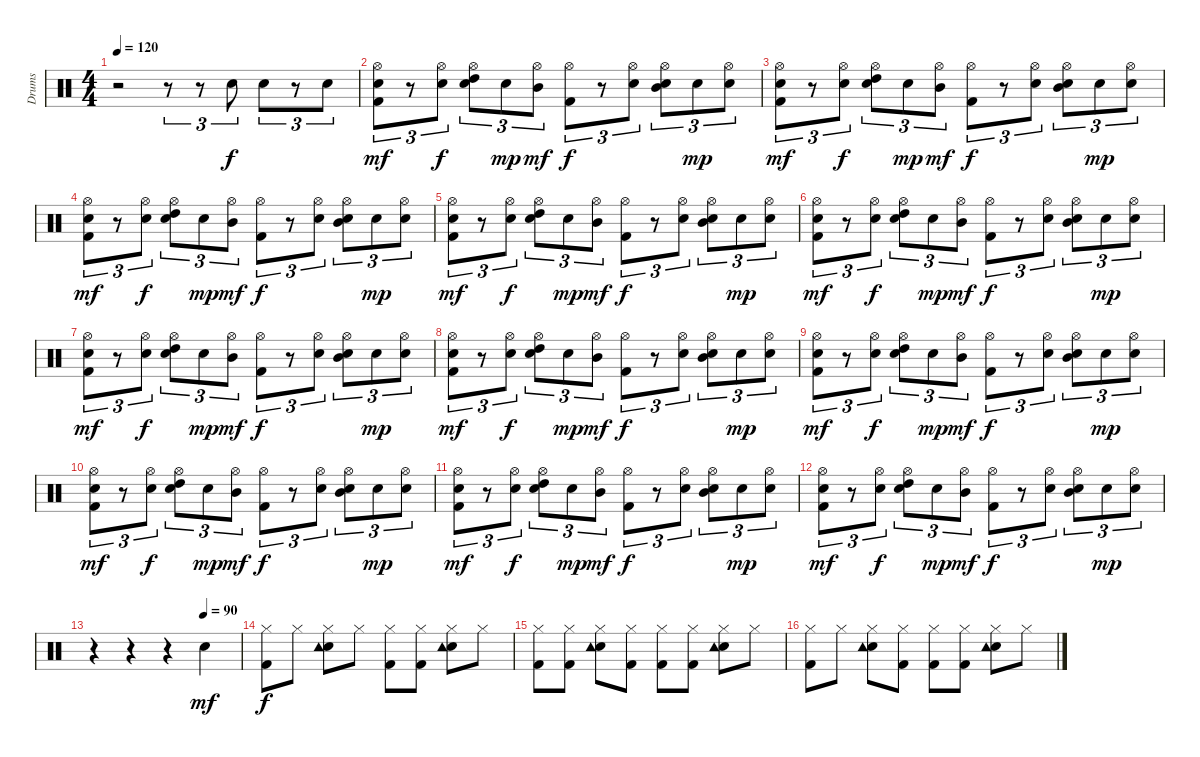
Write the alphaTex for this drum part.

\track ("Drums" "Drums") {instrument percussion}
\staff {score}
\articulation defaults
\ts (4 4)
\tempo 120
\clef neutral
\ks c
r.2{dy f} r.8{tu (3 2)} r.8{tu (3 2)} "Snare (hit) 2".8{tu (3 2)} "Snare (hit) 2".8{tu (3 2)} r.8{tu (3 2)} "Snare (hit) 2".8{tu (3 2)} |
("Hi-Hat (open)" "Snare (hit) 2" "Kick (hit) 2").8{tu (3 2) dy mf} r.8{tu (3 2)} ("Hi-Hat (open)" "Snare (hit) 2").8{tu (3 2) dy f} ("Hi-Hat (open)" "High Tom (hit)" "Snare (hit) 2").8{tu (3 2)} "Snare (hit) 2".8{tu (3 2) dy mp} ("Hi-Hat (open)" "Mid Tom (hit)").8{tu (3 2) dy mf} ("Hi-Hat (open)" "Kick (hit) 2").8{tu (3 2) dy f} r.8{tu (3 2)} ("Hi-Hat (open)" "Snare (hit) 2").8{tu (3 2)} ("Hi-Hat (open)" "Mid Tom (hit)" "Snare (hit) 2").8{tu (3 2)} "Snare (hit) 2".8{tu (3 2) dy mp} ("Hi-Hat (open)" "Snare (hit) 2").8{tu (3 2)} |
("Hi-Hat (open)" "Snare (hit) 2" "Kick (hit) 2").8{tu (3 2) dy mf} r.8{tu (3 2)} ("Hi-Hat (open)" "Snare (hit) 2").8{tu (3 2) dy f} ("Hi-Hat (open)" "High Tom (hit)" "Snare (hit) 2").8{tu (3 2)} "Snare (hit) 2".8{tu (3 2) dy mp} ("Hi-Hat (open)" "Mid Tom (hit)").8{tu (3 2) dy mf} ("Hi-Hat (open)" "Kick (hit) 2").8{tu (3 2) dy f} r.8{tu (3 2)} ("Hi-Hat (open)" "Snare (hit) 2").8{tu (3 2)} ("Hi-Hat (open)" "Mid Tom (hit)" "Snare (hit) 2").8{tu (3 2)} "Snare (hit) 2".8{tu (3 2) dy mp} ("Hi-Hat (open)" "Snare (hit) 2").8{tu (3 2)} |
("Hi-Hat (open)" "Snare (hit) 2" "Kick (hit) 2").8{tu (3 2) dy mf} r.8{tu (3 2)} ("Hi-Hat (open)" "Snare (hit) 2").8{tu (3 2) dy f} ("Hi-Hat (open)" "High Tom (hit)" "Snare (hit) 2").8{tu (3 2)} "Snare (hit) 2".8{tu (3 2) dy mp} ("Hi-Hat (open)" "Mid Tom (hit)").8{tu (3 2) dy mf} ("Hi-Hat (open)" "Kick (hit) 2").8{tu (3 2) dy f} r.8{tu (3 2)} ("Hi-Hat (open)" "Snare (hit) 2").8{tu (3 2)} ("Hi-Hat (open)" "Mid Tom (hit)" "Snare (hit) 2").8{tu (3 2)} "Snare (hit) 2".8{tu (3 2) dy mp} ("Hi-Hat (open)" "Snare (hit) 2").8{tu (3 2)} |
("Hi-Hat (open)" "Snare (hit) 2" "Kick (hit) 2").8{tu (3 2) dy mf} r.8{tu (3 2)} ("Hi-Hat (open)" "Snare (hit) 2").8{tu (3 2) dy f} ("Hi-Hat (open)" "High Tom (hit)" "Snare (hit) 2").8{tu (3 2)} "Snare (hit) 2".8{tu (3 2) dy mp} ("Hi-Hat (open)" "Mid Tom (hit)").8{tu (3 2) dy mf} ("Hi-Hat (open)" "Kick (hit) 2").8{tu (3 2) dy f} r.8{tu (3 2)} ("Hi-Hat (open)" "Snare (hit) 2").8{tu (3 2)} ("Hi-Hat (open)" "Mid Tom (hit)" "Snare (hit) 2").8{tu (3 2)} "Snare (hit) 2".8{tu (3 2) dy mp} ("Hi-Hat (open)" "Snare (hit) 2").8{tu (3 2)} |
("Hi-Hat (open)" "Snare (hit) 2" "Kick (hit) 2").8{tu (3 2) dy mf} r.8{tu (3 2)} ("Hi-Hat (open)" "Snare (hit) 2").8{tu (3 2) dy f} ("Hi-Hat (open)" "High Tom (hit)" "Snare (hit) 2").8{tu (3 2)} "Snare (hit) 2".8{tu (3 2) dy mp} ("Hi-Hat (open)" "Mid Tom (hit)").8{tu (3 2) dy mf} ("Hi-Hat (open)" "Kick (hit) 2").8{tu (3 2) dy f} r.8{tu (3 2)} ("Hi-Hat (open)" "Snare (hit) 2").8{tu (3 2)} ("Hi-Hat (open)" "Mid Tom (hit)" "Snare (hit) 2").8{tu (3 2)} "Snare (hit) 2".8{tu (3 2) dy mp} ("Hi-Hat (open)" "Snare (hit) 2").8{tu (3 2)} |
("Hi-Hat (open)" "Snare (hit) 2" "Kick (hit) 2").8{tu (3 2) dy mf} r.8{tu (3 2)} ("Hi-Hat (open)" "Snare (hit) 2").8{tu (3 2) dy f} ("Hi-Hat (open)" "High Tom (hit)" "Snare (hit) 2").8{tu (3 2)} "Snare (hit) 2".8{tu (3 2) dy mp} ("Hi-Hat (open)" "Mid Tom (hit)").8{tu (3 2) dy mf} ("Hi-Hat (open)" "Kick (hit) 2").8{tu (3 2) dy f} r.8{tu (3 2)} ("Hi-Hat (open)" "Snare (hit) 2").8{tu (3 2)} ("Hi-Hat (open)" "Mid Tom (hit)" "Snare (hit) 2").8{tu (3 2)} "Snare (hit) 2".8{tu (3 2) dy mp} ("Hi-Hat (open)" "Snare (hit) 2").8{tu (3 2)} |
("Hi-Hat (open)" "Snare (hit) 2" "Kick (hit) 2").8{tu (3 2) dy mf} r.8{tu (3 2)} ("Hi-Hat (open)" "Snare (hit) 2").8{tu (3 2) dy f} ("Hi-Hat (open)" "High Tom (hit)" "Snare (hit) 2").8{tu (3 2)} "Snare (hit) 2".8{tu (3 2) dy mp} ("Hi-Hat (open)" "Mid Tom (hit)").8{tu (3 2) dy mf} ("Hi-Hat (open)" "Kick (hit) 2").8{tu (3 2) dy f} r.8{tu (3 2)} ("Hi-Hat (open)" "Snare (hit) 2").8{tu (3 2)} ("Hi-Hat (open)" "Mid Tom (hit)" "Snare (hit) 2").8{tu (3 2)} "Snare (hit) 2".8{tu (3 2) dy mp} ("Hi-Hat (open)" "Snare (hit) 2").8{tu (3 2)} |
("Hi-Hat (open)" "Snare (hit) 2" "Kick (hit) 2").8{tu (3 2) dy mf} r.8{tu (3 2)} ("Hi-Hat (open)" "Snare (hit) 2").8{tu (3 2) dy f} ("Hi-Hat (open)" "High Tom (hit)" "Snare (hit) 2").8{tu (3 2)} "Snare (hit) 2".8{tu (3 2) dy mp} ("Hi-Hat (open)" "Mid Tom (hit)").8{tu (3 2) dy mf} ("Hi-Hat (open)" "Kick (hit) 2").8{tu (3 2) dy f} r.8{tu (3 2)} ("Hi-Hat (open)" "Snare (hit) 2").8{tu (3 2)} ("Hi-Hat (open)" "Mid Tom (hit)" "Snare (hit) 2").8{tu (3 2)} "Snare (hit) 2".8{tu (3 2) dy mp} ("Hi-Hat (open)" "Snare (hit) 2").8{tu (3 2)} |
("Hi-Hat (open)" "Snare (hit) 2" "Kick (hit) 2").8{tu (3 2) dy mf} r.8{tu (3 2)} ("Hi-Hat (open)" "Snare (hit) 2").8{tu (3 2) dy f} ("Hi-Hat (open)" "High Tom (hit)" "Snare (hit) 2").8{tu (3 2)} "Snare (hit) 2".8{tu (3 2) dy mp} ("Hi-Hat (open)" "Mid Tom (hit)").8{tu (3 2) dy mf} ("Hi-Hat (open)" "Kick (hit) 2").8{tu (3 2) dy f} r.8{tu (3 2)} ("Hi-Hat (open)" "Snare (hit) 2").8{tu (3 2)} ("Hi-Hat (open)" "Mid Tom (hit)" "Snare (hit) 2").8{tu (3 2)} "Snare (hit) 2".8{tu (3 2) dy mp} ("Hi-Hat (open)" "Snare (hit) 2").8{tu (3 2)} |
("Hi-Hat (open)" "Snare (hit) 2" "Kick (hit) 2").8{tu (3 2) dy mf} r.8{tu (3 2)} ("Hi-Hat (open)" "Snare (hit) 2").8{tu (3 2) dy f} ("Hi-Hat (open)" "High Tom (hit)" "Snare (hit) 2").8{tu (3 2)} "Snare (hit) 2".8{tu (3 2) dy mp} ("Hi-Hat (open)" "Mid Tom (hit)").8{tu (3 2) dy mf} ("Hi-Hat (open)" "Kick (hit) 2").8{tu (3 2) dy f} r.8{tu (3 2)} ("Hi-Hat (open)" "Snare (hit) 2").8{tu (3 2)} ("Hi-Hat (open)" "Mid Tom (hit)" "Snare (hit) 2").8{tu (3 2)} "Snare (hit) 2".8{tu (3 2) dy mp} ("Hi-Hat (open)" "Snare (hit) 2").8{tu (3 2)} |
("Hi-Hat (open)" "Snare (hit) 2" "Kick (hit) 2").8{tu (3 2) dy mf} r.8{tu (3 2)} ("Hi-Hat (open)" "Snare (hit) 2").8{tu (3 2) dy f} ("Hi-Hat (open)" "High Tom (hit)" "Snare (hit) 2").8{tu (3 2)} "Snare (hit) 2".8{tu (3 2) dy mp} ("Hi-Hat (open)" "Mid Tom (hit)").8{tu (3 2) dy mf} ("Hi-Hat (open)" "Kick (hit) 2").8{tu (3 2) dy f} r.8{tu (3 2)} ("Hi-Hat (open)" "Snare (hit) 2").8{tu (3 2)} ("Hi-Hat (open)" "Mid Tom (hit)" "Snare (hit) 2").8{tu (3 2)} "Snare (hit) 2".8{tu (3 2) dy mp} ("Hi-Hat (open)" "Snare (hit) 2").8{tu (3 2)} |
\tempo (90 0.75)
r.4 r.4 r.4 "Snare (hit) 2".4{dy mf} |
("Hi-Hat (closed)" "Kick (hit) 2").8{dy f} "Hi-Hat (closed)".8 ("Hi-Hat (closed)" "Snare (hit) 2" "Tambourine (hit)").8 "Hi-Hat (closed)".8 ("Hi-Hat (closed)" "Kick (hit) 2").8 ("Hi-Hat (closed)" "Kick (hit) 2").8 ("Hi-Hat (closed)" "Snare (hit) 2" "Tambourine (hit)").8 "Hi-Hat (closed)".8 |
("Hi-Hat (closed)" "Kick (hit) 2").8 ("Hi-Hat (closed)" "Kick (hit) 2").8 ("Hi-Hat (closed)" "Snare (hit) 2" "Tambourine (hit)").8 ("Hi-Hat (closed)" "Kick (hit) 2").8 ("Hi-Hat (closed)" "Kick (hit) 2").8 ("Hi-Hat (closed)" "Kick (hit) 2").8 ("Hi-Hat (closed)" "Snare (hit) 2" "Tambourine (hit)").8 "Hi-Hat (closed)".8 |
("Hi-Hat (closed)" "Kick (hit) 2").8 "Hi-Hat (closed)".8 ("Hi-Hat (closed)" "Snare (hit) 2" "Tambourine (hit)").8 ("Hi-Hat (closed)" "Kick (hit) 2").8 ("Hi-Hat (closed)" "Kick (hit) 2").8 ("Hi-Hat (closed)" "Kick (hit) 2").8 ("Hi-Hat (closed)" "Snare (hit) 2" "Tambourine (hit)").8 "Hi-Hat (closed)".8
